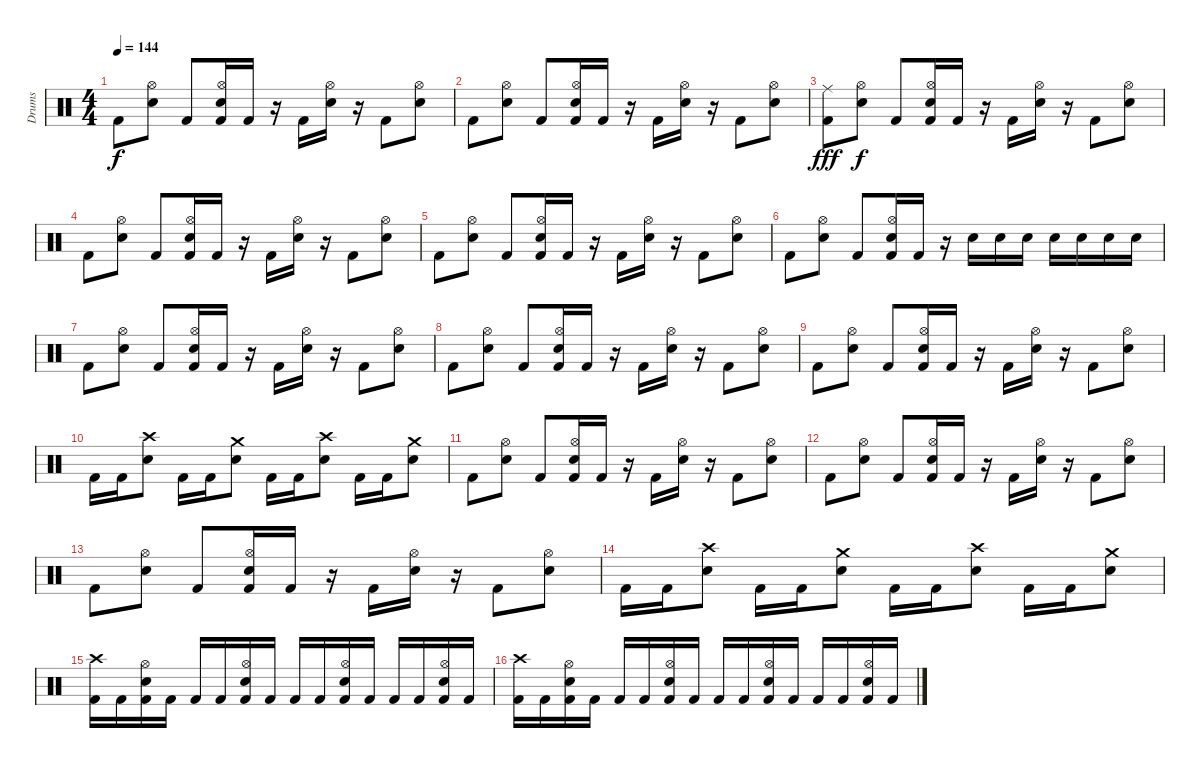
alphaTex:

\track ("Drums" "Drums") {instrument percussion}
\staff {score}
\articulation defaults
\ts (4 4)
\tempo 144
\clef neutral
\ks c "Kick (hit) 2".8{dy f}
("Hi-Hat (open)" "Snare (hit) 2").8 "Kick (hit) 2".8 ("Hi-Hat (open)" "Snare (hit) 2" "Kick (hit) 2").16 "Kick (hit) 2".16 r.16 "Kick (hit) 2".16 ("Hi-Hat (open)" "Snare (hit) 2").16 r.16 "Kick (hit) 2".8 ("Hi-Hat (open)" "Snare (hit) 2").8 |
"Kick (hit) 2".8 ("Hi-Hat (open)" "Snare (hit) 2").8 "Kick (hit) 2".8 ("Hi-Hat (open)" "Snare (hit) 2" "Kick (hit) 2").16 "Kick (hit) 2".16 r.16 "Kick (hit) 2".16 ("Hi-Hat (open)" "Snare (hit) 2").16 r.16 "Kick (hit) 2".8 ("Hi-Hat (open)" "Snare (hit) 2").8 |
("Ride (middle)" "Kick (hit) 2").8{dy fff} ("Hi-Hat (open)" "Snare (hit) 2").8{dy f} "Kick (hit) 2".8 ("Hi-Hat (open)" "Snare (hit) 2" "Kick (hit) 2").16 "Kick (hit) 2".16 r.16 "Kick (hit) 2".16 ("Hi-Hat (open)" "Snare (hit) 2").16 r.16 "Kick (hit) 2".8 ("Hi-Hat (open)" "Snare (hit) 2").8 |
"Kick (hit) 2".8 ("Hi-Hat (open)" "Snare (hit) 2").8 "Kick (hit) 2".8 ("Hi-Hat (open)" "Snare (hit) 2" "Kick (hit) 2").16 "Kick (hit) 2".16 r.16 "Kick (hit) 2".16 ("Hi-Hat (open)" "Snare (hit) 2").16 r.16 "Kick (hit) 2".8 ("Hi-Hat (open)" "Snare (hit) 2").8 |
"Kick (hit) 2".8 ("Hi-Hat (open)" "Snare (hit) 2").8 "Kick (hit) 2".8 ("Hi-Hat (open)" "Snare (hit) 2" "Kick (hit) 2").16 "Kick (hit) 2".16 r.16 "Kick (hit) 2".16 ("Hi-Hat (open)" "Snare (hit) 2").16 r.16 "Kick (hit) 2".8 ("Hi-Hat (open)" "Snare (hit) 2").8 |
"Kick (hit) 2".8 ("Hi-Hat (open)" "Snare (hit) 2").8 "Kick (hit) 2".8 ("Hi-Hat (open)" "Snare (hit) 2" "Kick (hit) 2").16 "Kick (hit) 2".16 r.16 "Electric Snare (hit)".16 "Electric Snare (hit)".16 "Electric Snare (hit)".16 "Electric Snare (hit)".16 "Electric Snare (hit)".16 "Electric Snare (hit)".16 "Electric Snare (hit)".16 |
"Kick (hit) 2".8 ("Hi-Hat (open)" "Snare (hit) 2").8 "Kick (hit) 2".8 ("Hi-Hat (open)" "Snare (hit) 2" "Kick (hit) 2").16 "Kick (hit) 2".16 r.16 "Kick (hit) 2".16 ("Hi-Hat (open)" "Snare (hit) 2").16 r.16 "Kick (hit) 2".8 ("Hi-Hat (open)" "Snare (hit) 2").8 |
"Kick (hit) 2".8 ("Hi-Hat (open)" "Snare (hit) 2").8 "Kick (hit) 2".8 ("Hi-Hat (open)" "Snare (hit) 2" "Kick (hit) 2").16 "Kick (hit) 2".16 r.16 "Kick (hit) 2".16 ("Hi-Hat (open)" "Snare (hit) 2").16 r.16 "Kick (hit) 2".8 ("Hi-Hat (open)" "Snare (hit) 2").8 |
"Kick (hit) 2".8 ("Hi-Hat (open)" "Snare (hit) 2").8 "Kick (hit) 2".8 ("Hi-Hat (open)" "Snare (hit) 2" "Kick (hit) 2").16 "Kick (hit) 2".16 r.16 "Kick (hit) 2".16 ("Hi-Hat (open)" "Snare (hit) 2").16 r.16 "Kick (hit) 2".8 ("Hi-Hat (open)" "Snare (hit) 2").8 |
"Kick (hit) 2".16 "Kick (hit) 2".16 ("Crash high (hit)" "Snare (hit) 2").8 "Kick (hit) 2".16 "Kick (hit) 2".16 ("Crash medium (hit)" "Snare (hit) 2").8 "Kick (hit) 2".16 "Kick (hit) 2".16 ("Crash high (hit)" "Snare (hit) 2").8 "Kick (hit) 2".16 "Kick (hit) 2".16 ("Crash medium (hit)" "Snare (hit) 2").8 |
"Kick (hit) 2".8 ("Hi-Hat (open)" "Snare (hit) 2").8 "Kick (hit) 2".8 ("Hi-Hat (open)" "Snare (hit) 2" "Kick (hit) 2").16 "Kick (hit) 2".16 r.16 "Kick (hit) 2".16 ("Hi-Hat (open)" "Snare (hit) 2").16 r.16 "Kick (hit) 2".8 ("Hi-Hat (open)" "Snare (hit) 2").8 |
"Kick (hit) 2".8 ("Hi-Hat (open)" "Snare (hit) 2").8 "Kick (hit) 2".8 ("Hi-Hat (open)" "Snare (hit) 2" "Kick (hit) 2").16 "Kick (hit) 2".16 r.16 "Kick (hit) 2".16 ("Hi-Hat (open)" "Snare (hit) 2").16 r.16 "Kick (hit) 2".8 ("Hi-Hat (open)" "Snare (hit) 2").8 |
"Kick (hit) 2".8 ("Hi-Hat (open)" "Snare (hit) 2").8 "Kick (hit) 2".8 ("Hi-Hat (open)" "Snare (hit) 2" "Kick (hit) 2").16 "Kick (hit) 2".16 r.16 "Kick (hit) 2".16 ("Hi-Hat (open)" "Snare (hit) 2").16 r.16 "Kick (hit) 2".8 ("Hi-Hat (open)" "Snare (hit) 2").8 |
"Kick (hit) 2".16 "Kick (hit) 2".16 ("Crash high (hit)" "Snare (hit) 2").8 "Kick (hit) 2".16 "Kick (hit) 2".16 ("Crash medium (hit)" "Snare (hit) 2").8 "Kick (hit) 2".16 "Kick (hit) 2".16 ("Crash high (hit)" "Snare (hit) 2").8 "Kick (hit) 2".16 "Kick (hit) 2".16 ("Crash medium (hit)" "Snare (hit) 2").8 |
("Crash high (hit)" "Kick (hit) 2").16 "Kick (hit) 2".16 ("Hi-Hat (open)" "Snare (hit) 2" "Kick (hit) 2").16 "Kick (hit) 2".16 "Kick (hit) 2".16 "Kick (hit) 2".16 ("Hi-Hat (open)" "Snare (hit) 2" "Kick (hit) 2").16 "Kick (hit) 2".16 "Kick (hit) 2".16 "Kick (hit) 2".16 ("Hi-Hat (open)" "Snare (hit) 2" "Kick (hit) 2").16 "Kick (hit) 2".16 "Kick (hit) 2".16 "Kick (hit) 2".16 ("Hi-Hat (open)" "Snare (hit) 2" "Kick (hit) 2").16 "Kick (hit) 2".16 |
("Crash high (hit)" "Kick (hit) 2").16 "Kick (hit) 2".16 ("Hi-Hat (open)" "Snare (hit) 2" "Kick (hit) 2").16 "Kick (hit) 2".16 "Kick (hit) 2".16 "Kick (hit) 2".16 ("Hi-Hat (open)" "Snare (hit) 2" "Kick (hit) 2").16 "Kick (hit) 2".16 "Kick (hit) 2".16 "Kick (hit) 2".16 ("Hi-Hat (open)" "Snare (hit) 2" "Kick (hit) 2").16 "Kick (hit) 2".16 "Kick (hit) 2".16 "Kick (hit) 2".16 ("Hi-Hat (open)" "Snare (hit) 2" "Kick (hit) 2").16 "Kick (hit) 2".16
